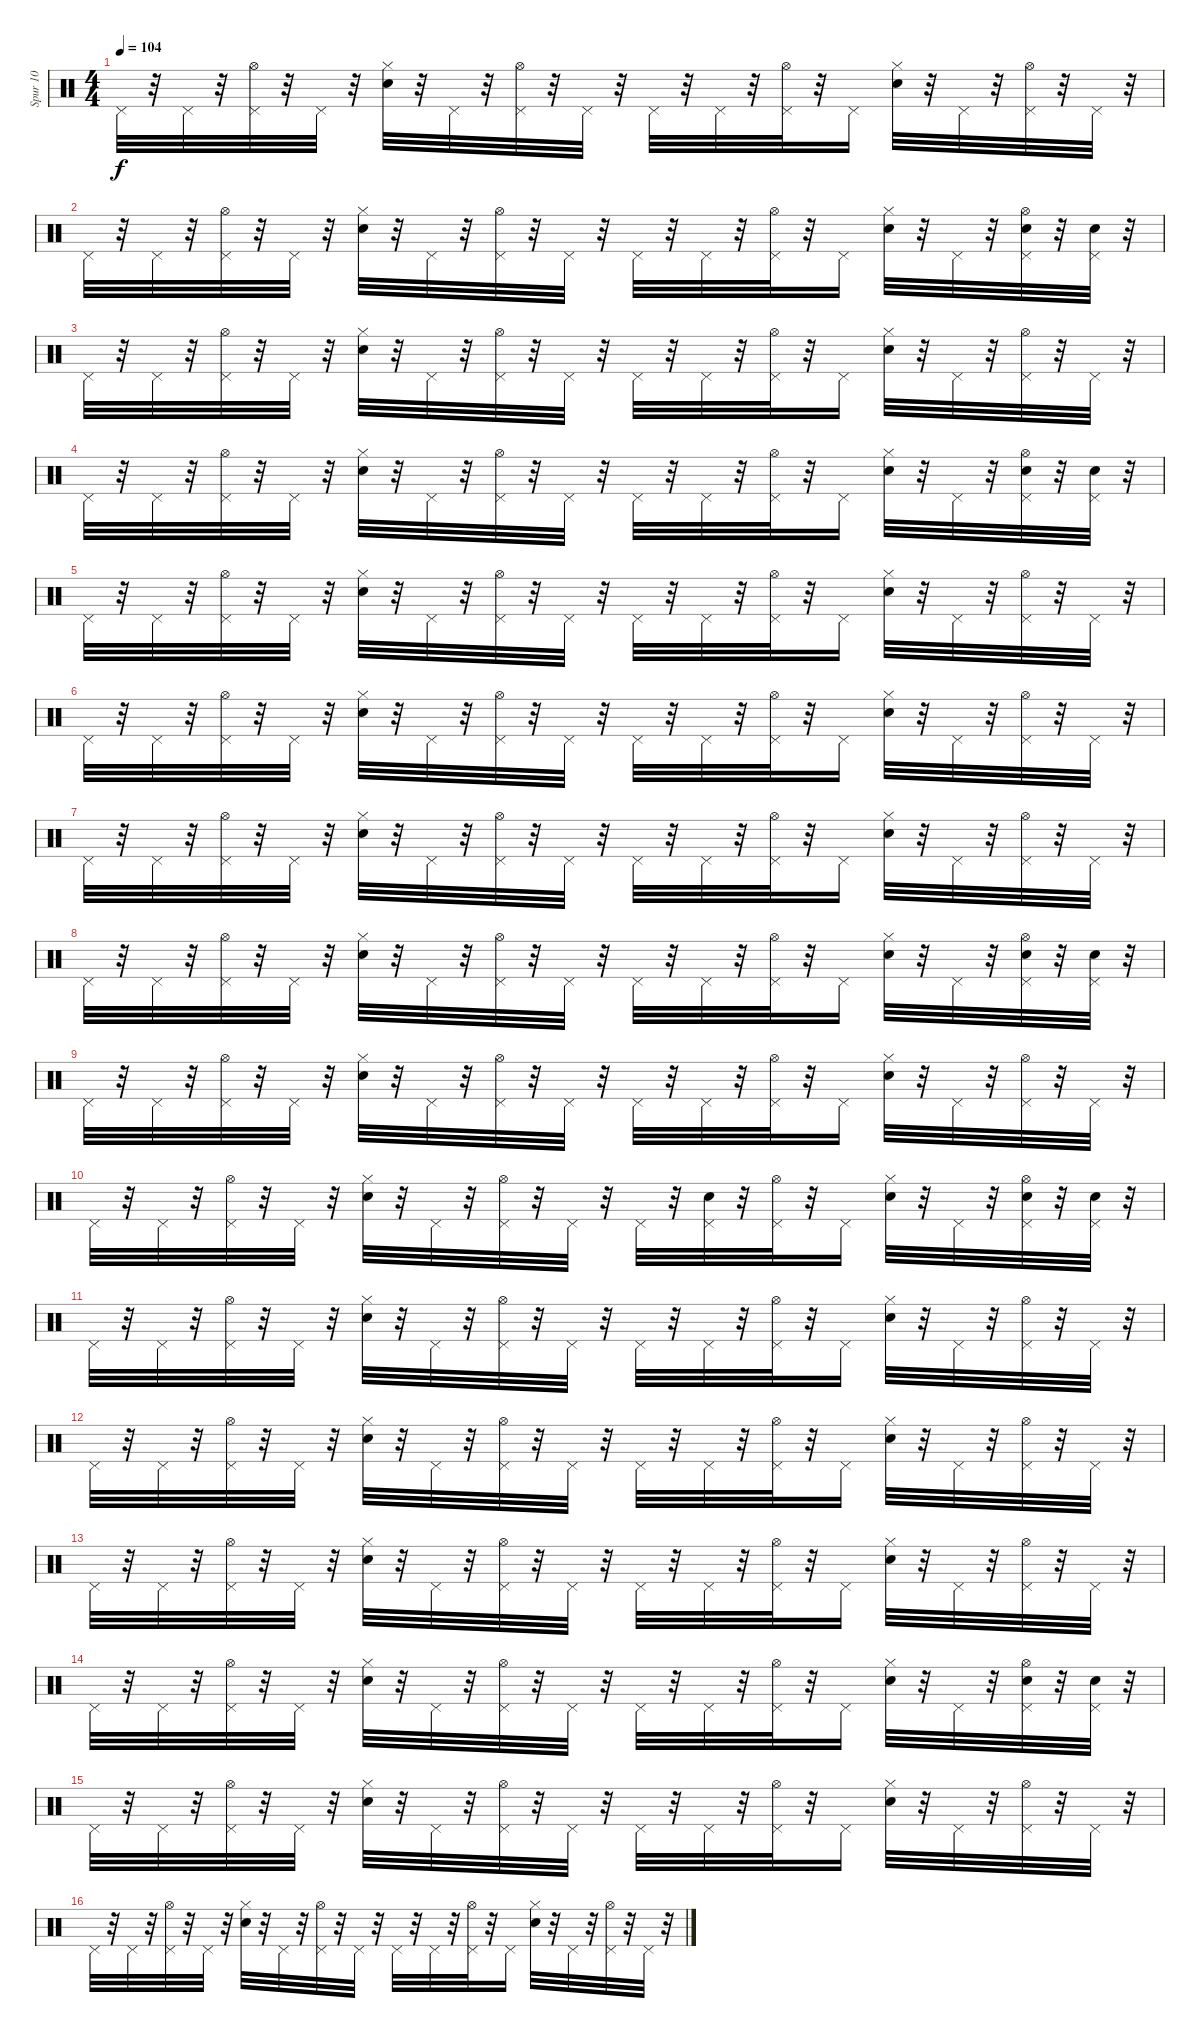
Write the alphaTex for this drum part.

\track ("Spur 10" "Spur 10") {instrument percussion}
\staff {score}
\articulation defaults
\ts (4 4)
\tempo 104
\clef neutral
\ks c "Pedal Hi-Hat (hit)".32{dy f}
r.32 "Pedal Hi-Hat (hit)".32 r.32 ("Pedal Hi-Hat (hit)" "Hi-Hat (open)").32 r.32 "Pedal Hi-Hat (hit)".32 r.32 ("Snare (hit) 2" "Hi-Hat (closed)").32 r.32 "Pedal Hi-Hat (hit)".32 r.32 ("Pedal Hi-Hat (hit)" "Hi-Hat (open)").32 r.32 "Pedal Hi-Hat (hit)".32 r.32 "Pedal Hi-Hat (hit)".32 r.32 "Pedal Hi-Hat (hit)".32 r.32 ("Pedal Hi-Hat (hit)" "Hi-Hat (open)").32 r.32 "Pedal Hi-Hat (hit)".16 ("Snare (hit) 2" "Hi-Hat (closed)").32 r.32 "Pedal Hi-Hat (hit)".32 r.32 ("Pedal Hi-Hat (hit)" "Hi-Hat (open)").32 r.32 "Pedal Hi-Hat (hit)".32 r.32 |
"Pedal Hi-Hat (hit)".32 r.32 "Pedal Hi-Hat (hit)".32 r.32 ("Pedal Hi-Hat (hit)" "Hi-Hat (open)").32 r.32 "Pedal Hi-Hat (hit)".32 r.32 ("Snare (hit) 2" "Hi-Hat (closed)").32 r.32 "Pedal Hi-Hat (hit)".32 r.32 ("Pedal Hi-Hat (hit)" "Hi-Hat (open)").32 r.32 "Pedal Hi-Hat (hit)".32 r.32 "Pedal Hi-Hat (hit)".32 r.32 "Pedal Hi-Hat (hit)".32 r.32 ("Pedal Hi-Hat (hit)" "Hi-Hat (open)").32 r.32 "Pedal Hi-Hat (hit)".16 ("Snare (hit) 2" "Hi-Hat (closed)").32 r.32 "Pedal Hi-Hat (hit)".32 r.32 ("Snare (hit) 2" "Pedal Hi-Hat (hit)" "Hi-Hat (open)").32 r.32 ("Snare (hit) 2" "Pedal Hi-Hat (hit)").32 r.32 |
"Pedal Hi-Hat (hit)".32 r.32 "Pedal Hi-Hat (hit)".32 r.32 ("Pedal Hi-Hat (hit)" "Hi-Hat (open)").32 r.32 "Pedal Hi-Hat (hit)".32 r.32 ("Snare (hit) 2" "Hi-Hat (closed)").32 r.32 "Pedal Hi-Hat (hit)".32 r.32 ("Pedal Hi-Hat (hit)" "Hi-Hat (open)").32 r.32 "Pedal Hi-Hat (hit)".32 r.32 "Pedal Hi-Hat (hit)".32 r.32 "Pedal Hi-Hat (hit)".32 r.32 ("Pedal Hi-Hat (hit)" "Hi-Hat (open)").32 r.32 "Pedal Hi-Hat (hit)".16 ("Snare (hit) 2" "Hi-Hat (closed)").32 r.32 "Pedal Hi-Hat (hit)".32 r.32 ("Pedal Hi-Hat (hit)" "Hi-Hat (open)").32 r.32 "Pedal Hi-Hat (hit)".32 r.32 |
"Pedal Hi-Hat (hit)".32 r.32 "Pedal Hi-Hat (hit)".32 r.32 ("Pedal Hi-Hat (hit)" "Hi-Hat (open)").32 r.32 "Pedal Hi-Hat (hit)".32 r.32 ("Snare (hit) 2" "Hi-Hat (closed)").32 r.32 "Pedal Hi-Hat (hit)".32 r.32 ("Pedal Hi-Hat (hit)" "Hi-Hat (open)").32 r.32 "Pedal Hi-Hat (hit)".32 r.32 "Pedal Hi-Hat (hit)".32 r.32 "Pedal Hi-Hat (hit)".32 r.32 ("Pedal Hi-Hat (hit)" "Hi-Hat (open)").32 r.32 "Pedal Hi-Hat (hit)".16 ("Snare (hit) 2" "Hi-Hat (closed)").32 r.32 "Pedal Hi-Hat (hit)".32 r.32 ("Snare (hit) 2" "Pedal Hi-Hat (hit)" "Hi-Hat (open)").32 r.32 ("Snare (hit) 2" "Pedal Hi-Hat (hit)").32 r.32 |
"Pedal Hi-Hat (hit)".32 r.32 "Pedal Hi-Hat (hit)".32 r.32 ("Pedal Hi-Hat (hit)" "Hi-Hat (open)").32 r.32 "Pedal Hi-Hat (hit)".32 r.32 ("Snare (hit) 2" "Hi-Hat (closed)").32 r.32 "Pedal Hi-Hat (hit)".32 r.32 ("Pedal Hi-Hat (hit)" "Hi-Hat (open)").32 r.32 "Pedal Hi-Hat (hit)".32 r.32 "Pedal Hi-Hat (hit)".32 r.32 "Pedal Hi-Hat (hit)".32 r.32 ("Pedal Hi-Hat (hit)" "Hi-Hat (open)").32 r.32 "Pedal Hi-Hat (hit)".16 ("Snare (hit) 2" "Hi-Hat (closed)").32 r.32 "Pedal Hi-Hat (hit)".32 r.32 ("Pedal Hi-Hat (hit)" "Hi-Hat (open)").32 r.32 "Pedal Hi-Hat (hit)".32 r.32 |
"Pedal Hi-Hat (hit)".32 r.32 "Pedal Hi-Hat (hit)".32 r.32 ("Pedal Hi-Hat (hit)" "Hi-Hat (open)").32 r.32 "Pedal Hi-Hat (hit)".32 r.32 ("Snare (hit) 2" "Hi-Hat (closed)").32 r.32 "Pedal Hi-Hat (hit)".32 r.32 ("Pedal Hi-Hat (hit)" "Hi-Hat (open)").32 r.32 "Pedal Hi-Hat (hit)".32 r.32 "Pedal Hi-Hat (hit)".32 r.32 "Pedal Hi-Hat (hit)".32 r.32 ("Pedal Hi-Hat (hit)" "Hi-Hat (open)").32 r.32 "Pedal Hi-Hat (hit)".16 ("Snare (hit) 2" "Hi-Hat (closed)").32 r.32 "Pedal Hi-Hat (hit)".32 r.32 ("Pedal Hi-Hat (hit)" "Hi-Hat (open)").32 r.32 "Pedal Hi-Hat (hit)".32 r.32 |
"Pedal Hi-Hat (hit)".32 r.32 "Pedal Hi-Hat (hit)".32 r.32 ("Pedal Hi-Hat (hit)" "Hi-Hat (open)").32 r.32 "Pedal Hi-Hat (hit)".32 r.32 ("Snare (hit) 2" "Hi-Hat (closed)").32 r.32 "Pedal Hi-Hat (hit)".32 r.32 ("Pedal Hi-Hat (hit)" "Hi-Hat (open)").32 r.32 "Pedal Hi-Hat (hit)".32 r.32 "Pedal Hi-Hat (hit)".32 r.32 "Pedal Hi-Hat (hit)".32 r.32 ("Pedal Hi-Hat (hit)" "Hi-Hat (open)").32 r.32 "Pedal Hi-Hat (hit)".16 ("Snare (hit) 2" "Hi-Hat (closed)").32 r.32 "Pedal Hi-Hat (hit)".32 r.32 ("Pedal Hi-Hat (hit)" "Hi-Hat (open)").32 r.32 "Pedal Hi-Hat (hit)".32 r.32 |
"Pedal Hi-Hat (hit)".32 r.32 "Pedal Hi-Hat (hit)".32 r.32 ("Pedal Hi-Hat (hit)" "Hi-Hat (open)").32 r.32 "Pedal Hi-Hat (hit)".32 r.32 ("Snare (hit) 2" "Hi-Hat (closed)").32 r.32 "Pedal Hi-Hat (hit)".32 r.32 ("Pedal Hi-Hat (hit)" "Hi-Hat (open)").32 r.32 "Pedal Hi-Hat (hit)".32 r.32 "Pedal Hi-Hat (hit)".32 r.32 "Pedal Hi-Hat (hit)".32 r.32 ("Pedal Hi-Hat (hit)" "Hi-Hat (open)").32 r.32 "Pedal Hi-Hat (hit)".16 ("Snare (hit) 2" "Hi-Hat (closed)").32 r.32 "Pedal Hi-Hat (hit)".32 r.32 ("Snare (hit) 2" "Pedal Hi-Hat (hit)" "Hi-Hat (open)").32 r.32 ("Snare (hit) 2" "Pedal Hi-Hat (hit)").32 r.32 |
"Pedal Hi-Hat (hit)".32 r.32 "Pedal Hi-Hat (hit)".32 r.32 ("Pedal Hi-Hat (hit)" "Hi-Hat (open)").32 r.32 "Pedal Hi-Hat (hit)".32 r.32 ("Snare (hit) 2" "Hi-Hat (closed)").32 r.32 "Pedal Hi-Hat (hit)".32 r.32 ("Pedal Hi-Hat (hit)" "Hi-Hat (open)").32 r.32 "Pedal Hi-Hat (hit)".32 r.32 "Pedal Hi-Hat (hit)".32 r.32 "Pedal Hi-Hat (hit)".32 r.32 ("Pedal Hi-Hat (hit)" "Hi-Hat (open)").32 r.32 "Pedal Hi-Hat (hit)".16 ("Snare (hit) 2" "Hi-Hat (closed)").32 r.32 "Pedal Hi-Hat (hit)".32 r.32 ("Pedal Hi-Hat (hit)" "Hi-Hat (open)").32 r.32 "Pedal Hi-Hat (hit)".32 r.32 |
"Pedal Hi-Hat (hit)".32 r.32 "Pedal Hi-Hat (hit)".32 r.32 ("Pedal Hi-Hat (hit)" "Hi-Hat (open)").32 r.32 "Pedal Hi-Hat (hit)".32 r.32 ("Snare (hit) 2" "Hi-Hat (closed)").32 r.32 "Pedal Hi-Hat (hit)".32 r.32 ("Pedal Hi-Hat (hit)" "Hi-Hat (open)").32 r.32 "Pedal Hi-Hat (hit)".32 r.32 "Pedal Hi-Hat (hit)".32 r.32 ("Pedal Hi-Hat (hit)" "Snare (hit) 2").32 r.32 ("Pedal Hi-Hat (hit)" "Hi-Hat (open)").32 r.32 "Pedal Hi-Hat (hit)".16 ("Snare (hit) 2" "Hi-Hat (closed)").32 r.32 "Pedal Hi-Hat (hit)".32 r.32 ("Snare (hit) 2" "Pedal Hi-Hat (hit)" "Hi-Hat (open)").32 r.32 ("Snare (hit) 2" "Pedal Hi-Hat (hit)").32 r.32 |
"Pedal Hi-Hat (hit)".32 r.32 "Pedal Hi-Hat (hit)".32 r.32 ("Pedal Hi-Hat (hit)" "Hi-Hat (open)").32 r.32 "Pedal Hi-Hat (hit)".32 r.32 ("Snare (hit) 2" "Hi-Hat (closed)").32 r.32 "Pedal Hi-Hat (hit)".32 r.32 ("Pedal Hi-Hat (hit)" "Hi-Hat (open)").32 r.32 "Pedal Hi-Hat (hit)".32 r.32 "Pedal Hi-Hat (hit)".32 r.32 "Pedal Hi-Hat (hit)".32 r.32 ("Pedal Hi-Hat (hit)" "Hi-Hat (open)").32 r.32 "Pedal Hi-Hat (hit)".16 ("Snare (hit) 2" "Hi-Hat (closed)").32 r.32 "Pedal Hi-Hat (hit)".32 r.32 ("Pedal Hi-Hat (hit)" "Hi-Hat (open)").32 r.32 "Pedal Hi-Hat (hit)".32 r.32 |
"Pedal Hi-Hat (hit)".32 r.32 "Pedal Hi-Hat (hit)".32 r.32 ("Pedal Hi-Hat (hit)" "Hi-Hat (open)").32 r.32 "Pedal Hi-Hat (hit)".32 r.32 ("Snare (hit) 2" "Hi-Hat (closed)").32 r.32 "Pedal Hi-Hat (hit)".32 r.32 ("Pedal Hi-Hat (hit)" "Hi-Hat (open)").32 r.32 "Pedal Hi-Hat (hit)".32 r.32 "Pedal Hi-Hat (hit)".32 r.32 "Pedal Hi-Hat (hit)".32 r.32 ("Pedal Hi-Hat (hit)" "Hi-Hat (open)").32 r.32 "Pedal Hi-Hat (hit)".16 ("Snare (hit) 2" "Hi-Hat (closed)").32 r.32 "Pedal Hi-Hat (hit)".32 r.32 ("Pedal Hi-Hat (hit)" "Hi-Hat (open)").32 r.32 "Pedal Hi-Hat (hit)".32 r.32 |
"Pedal Hi-Hat (hit)".32 r.32 "Pedal Hi-Hat (hit)".32 r.32 ("Pedal Hi-Hat (hit)" "Hi-Hat (open)").32 r.32 "Pedal Hi-Hat (hit)".32 r.32 ("Snare (hit) 2" "Hi-Hat (closed)").32 r.32 "Pedal Hi-Hat (hit)".32 r.32 ("Pedal Hi-Hat (hit)" "Hi-Hat (open)").32 r.32 "Pedal Hi-Hat (hit)".32 r.32 "Pedal Hi-Hat (hit)".32 r.32 "Pedal Hi-Hat (hit)".32 r.32 ("Pedal Hi-Hat (hit)" "Hi-Hat (open)").32 r.32 "Pedal Hi-Hat (hit)".16 ("Snare (hit) 2" "Hi-Hat (closed)").32 r.32 "Pedal Hi-Hat (hit)".32 r.32 ("Pedal Hi-Hat (hit)" "Hi-Hat (open)").32 r.32 "Pedal Hi-Hat (hit)".32 r.32 |
"Pedal Hi-Hat (hit)".32 r.32 "Pedal Hi-Hat (hit)".32 r.32 ("Pedal Hi-Hat (hit)" "Hi-Hat (open)").32 r.32 "Pedal Hi-Hat (hit)".32 r.32 ("Snare (hit) 2" "Hi-Hat (closed)").32 r.32 "Pedal Hi-Hat (hit)".32 r.32 ("Pedal Hi-Hat (hit)" "Hi-Hat (open)").32 r.32 "Pedal Hi-Hat (hit)".32 r.32 "Pedal Hi-Hat (hit)".32 r.32 "Pedal Hi-Hat (hit)".32 r.32 ("Pedal Hi-Hat (hit)" "Hi-Hat (open)").32 r.32 "Pedal Hi-Hat (hit)".16 ("Snare (hit) 2" "Hi-Hat (closed)").32 r.32 "Pedal Hi-Hat (hit)".32 r.32 ("Snare (hit) 2" "Pedal Hi-Hat (hit)" "Hi-Hat (open)").32 r.32 ("Snare (hit) 2" "Pedal Hi-Hat (hit)").32 r.32 |
"Pedal Hi-Hat (hit)".32 r.32 "Pedal Hi-Hat (hit)".32 r.32 ("Pedal Hi-Hat (hit)" "Hi-Hat (open)").32 r.32 "Pedal Hi-Hat (hit)".32 r.32 ("Snare (hit) 2" "Hi-Hat (closed)").32 r.32 "Pedal Hi-Hat (hit)".32 r.32 ("Pedal Hi-Hat (hit)" "Hi-Hat (open)").32 r.32 "Pedal Hi-Hat (hit)".32 r.32 "Pedal Hi-Hat (hit)".32 r.32 "Pedal Hi-Hat (hit)".32 r.32 ("Pedal Hi-Hat (hit)" "Hi-Hat (open)").32 r.32 "Pedal Hi-Hat (hit)".16 ("Snare (hit) 2" "Hi-Hat (closed)").32 r.32 "Pedal Hi-Hat (hit)".32 r.32 ("Pedal Hi-Hat (hit)" "Hi-Hat (open)").32 r.32 "Pedal Hi-Hat (hit)".32 r.32 |
"Pedal Hi-Hat (hit)".32 r.32 "Pedal Hi-Hat (hit)".32 r.32 ("Pedal Hi-Hat (hit)" "Hi-Hat (open)").32 r.32 "Pedal Hi-Hat (hit)".32 r.32 ("Snare (hit) 2" "Hi-Hat (closed)").32 r.32 "Pedal Hi-Hat (hit)".32 r.32 ("Pedal Hi-Hat (hit)" "Hi-Hat (open)").32 r.32 "Pedal Hi-Hat (hit)".32 r.32 "Pedal Hi-Hat (hit)".32 r.32 "Pedal Hi-Hat (hit)".32 r.32 ("Pedal Hi-Hat (hit)" "Hi-Hat (open)").32 r.32 "Pedal Hi-Hat (hit)".16 ("Snare (hit) 2" "Hi-Hat (closed)").32 r.32 "Pedal Hi-Hat (hit)".32 r.32 ("Pedal Hi-Hat (hit)" "Hi-Hat (open)").32 r.32 "Pedal Hi-Hat (hit)".32 r.32
